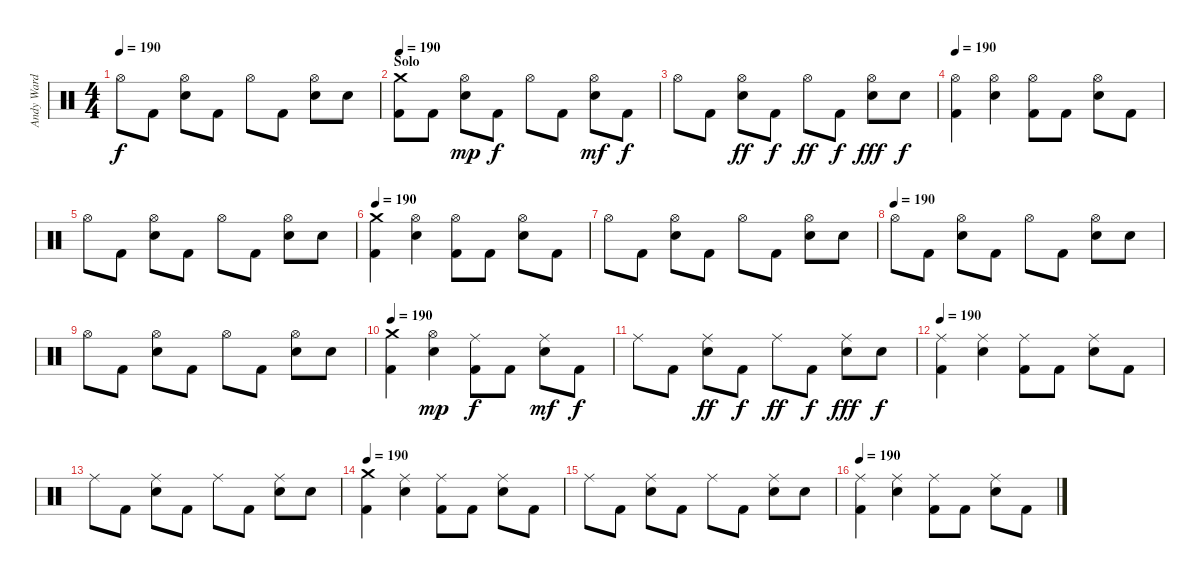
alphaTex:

\track ("Andy Ward" "Andy Ward") {instrument percussion}
\staff {score}
\articulation defaults
\ts (4 4)
\tempo 190
\clef neutral
\ks c "Hi-Hat (open)".8{dy f} "Kick (hit) 2".8
("Hi-Hat (open)" "Snare (hit) 2").8 "Kick (hit) 2".8 "Hi-Hat (open)".8 "Kick (hit) 2".8 ("Hi-Hat (open)" "Snare (hit) 2").8 "Snare (hit) 2".8 |
\section ("" "Solo")
\tempo 190
("Crash medium (hit)" "Kick (hit) 2").8 "Kick (hit) 2".8 ("Hi-Hat (open)" "Snare (hit) 2").8{dy mp} "Kick (hit) 2".8{dy f} "Hi-Hat (open)".8 "Kick (hit) 2".8 ("Hi-Hat (open)" "Snare (hit) 2").8{dy mf} "Kick (hit) 2".8{dy f} |
"Hi-Hat (open)".8 "Kick (hit) 2".8 ("Hi-Hat (open)" "Snare (hit) 2").8{dy ff} "Kick (hit) 2".8{dy f} "Hi-Hat (open)".8{dy ff} "Kick (hit) 2".8{dy f} ("Hi-Hat (open)" "Snare (hit) 2").8{dy fff} "Snare (hit) 2".8{dy f} |
\tempo 190
("Hi-Hat (open)" "Kick (hit) 2").4 ("Hi-Hat (open)" "Snare (hit) 2").4 ("Hi-Hat (open)" "Kick (hit) 2").8 "Kick (hit) 2".8 ("Hi-Hat (open)" "Snare (hit) 2").8 "Kick (hit) 2".8 |
"Hi-Hat (open)".8 "Kick (hit) 2".8 ("Hi-Hat (open)" "Snare (hit) 2").8 "Kick (hit) 2".8 "Hi-Hat (open)".8 "Kick (hit) 2".8 ("Hi-Hat (open)" "Snare (hit) 2").8 "Snare (hit) 2".8 |
\tempo 190
("Crash medium (hit)" "Kick (hit) 2").4 ("Hi-Hat (open)" "Snare (hit) 2").4 ("Hi-Hat (open)" "Kick (hit) 2").8 "Kick (hit) 2".8 ("Hi-Hat (open)" "Snare (hit) 2").8 "Kick (hit) 2".8 |
"Hi-Hat (open)".8 "Kick (hit) 2".8 ("Hi-Hat (open)" "Snare (hit) 2").8 "Kick (hit) 2".8 "Hi-Hat (open)".8 "Kick (hit) 2".8 ("Hi-Hat (open)" "Snare (hit) 2").8 "Snare (hit) 2".8 |
\tempo (190)
"Hi-Hat (open)".8 "Kick (hit) 2".8 ("Hi-Hat (open)" "Snare (hit) 2").8 "Kick (hit) 2".8 "Hi-Hat (open)".8 "Kick (hit) 2".8 ("Hi-Hat (open)" "Snare (hit) 2").8 "Snare (hit) 2".8 |
"Hi-Hat (open)".8 "Kick (hit) 2".8 ("Hi-Hat (open)" "Snare (hit) 2").8 "Kick (hit) 2".8 "Hi-Hat (open)".8 "Kick (hit) 2".8 ("Hi-Hat (open)" "Snare (hit) 2").8 "Snare (hit) 2".8 |
\tempo 190
("Crash medium (hit)" "Kick (hit) 2").4 ("Hi-Hat (open)" "Snare (hit) 2").4{dy mp} ("Ride (middle)" "Kick (hit) 2").8{dy f} "Kick (hit) 2".8 ("Ride (middle)" "Snare (hit) 2").8{dy mf} "Kick (hit) 2".8{dy f} |
"Ride (middle)".8 "Kick (hit) 2".8 ("Ride (middle)" "Snare (hit) 2").8{dy ff} "Kick (hit) 2".8{dy f} "Ride (middle)".8{dy ff} "Kick (hit) 2".8{dy f} ("Ride (middle)" "Snare (hit) 2").8{dy fff} "Snare (hit) 2".8{dy f} |
\tempo 190
("Ride (middle)" "Kick (hit) 2").4 ("Ride (middle)" "Snare (hit) 2").4 ("Ride (middle)" "Kick (hit) 2").8 "Kick (hit) 2".8 ("Ride (middle)" "Snare (hit) 2").8 "Kick (hit) 2".8 |
"Ride (middle)".8 "Kick (hit) 2".8 ("Ride (middle)" "Snare (hit) 2").8 "Kick (hit) 2".8 "Ride (middle)".8 "Kick (hit) 2".8 ("Ride (middle)" "Snare (hit) 2").8 "Snare (hit) 2".8 |
\tempo 190
("Crash medium (hit)" "Kick (hit) 2").4 ("Ride (middle)" "Snare (hit) 2").4 ("Ride (middle)" "Kick (hit) 2").8 "Kick (hit) 2".8 ("Ride (middle)" "Snare (hit) 2").8 "Kick (hit) 2".8 |
"Ride (middle)".8 "Kick (hit) 2".8 ("Ride (middle)" "Snare (hit) 2").8 "Kick (hit) 2".8 "Ride (middle)".8 "Kick (hit) 2".8 ("Ride (middle)" "Snare (hit) 2").8 "Snare (hit) 2".8 |
\tempo 190
("Ride (middle)" "Kick (hit) 2").4 ("Ride (middle)" "Snare (hit) 2").4 ("Ride (middle)" "Kick (hit) 2").8 "Kick (hit) 2".8 ("Ride (middle)" "Snare (hit) 2").8 "Kick (hit) 2".8
